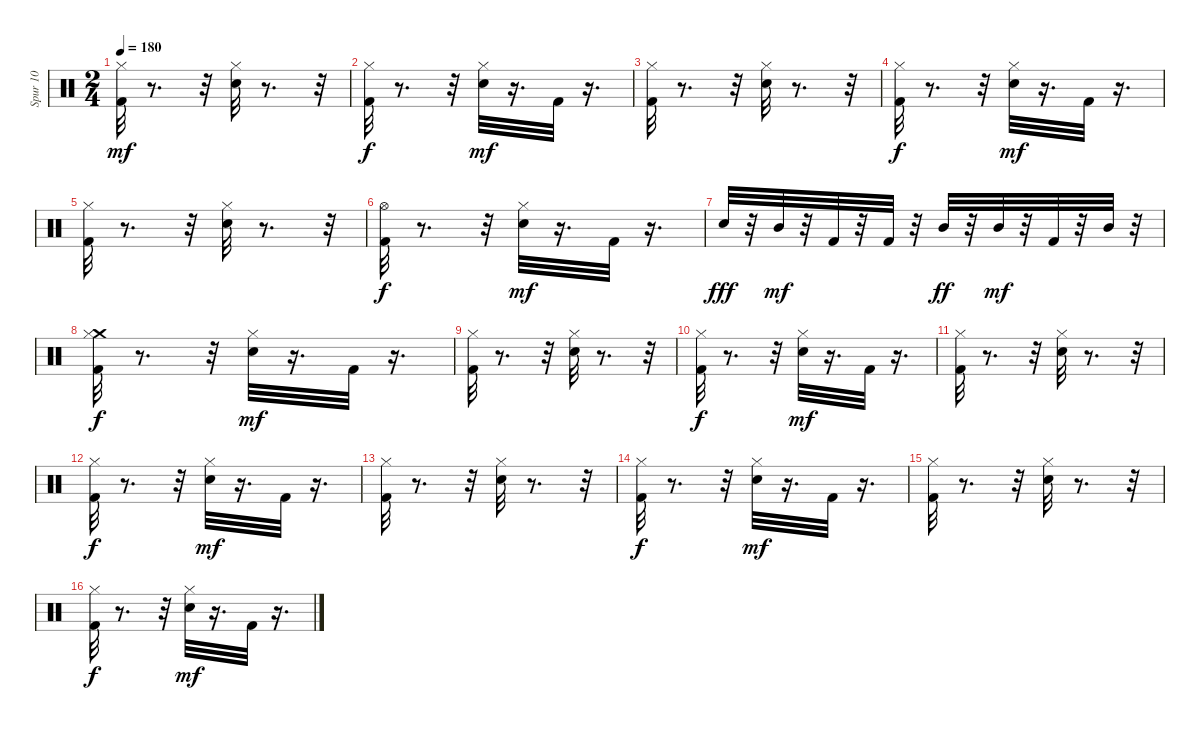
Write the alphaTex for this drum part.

\track ("Spur 10" "Spur 10") {instrument percussion}
\staff {score}
\articulation defaults
\ts (2 4)
\tempo 180
\clef neutral
\ks c
("Hi-Hat (closed)" "Kick (hit) 2").32{dy mf} r.8{d} r.32 ("Electric Snare (hit)" "Hi-Hat (closed)").32 r.8{d} r.32 |
("Hi-Hat (closed)" "Kick (hit) 2").32{dy f} r.8{d} r.32 ("Electric Snare (hit)" "Hi-Hat (closed)").32{dy mf} r.16{d} "Kick (hit) 2".32 r.16{d} |
("Hi-Hat (closed)" "Kick (hit) 2").32 r.8{d} r.32 ("Electric Snare (hit)" "Hi-Hat (closed)").32 r.8{d} r.32 |
("Hi-Hat (closed)" "Kick (hit) 2").32{dy f} r.8{d} r.32 ("Electric Snare (hit)" "Hi-Hat (closed)").32{dy mf} r.16{d} "Kick (hit) 2".32 r.16{d} |
("Hi-Hat (closed)" "Kick (hit) 2").32 r.8{d} r.32 ("Electric Snare (hit)" "Hi-Hat (closed)").32 r.8{d} r.32 |
("Hi-Hat (open)" "Kick (hit) 2").32{dy f} r.8{d} r.32 ("Electric Snare (hit)" "Hi-Hat (closed)").32{dy mf} r.16{d} "Kick (hit) 2".32 r.16{d} |
"Electric Snare (hit)".32{dy fff} r.32 "Mid Tom (hit)".32{dy mf} r.32 "Kick (hit) 2".32 r.32 "Kick (hit) 2".32 r.32 "Mid Tom (hit)".32{dy ff} r.32 "Mid Tom (hit)".32{dy mf} r.32 "Kick (hit) 2".32 r.32 "Mid Tom (hit)".32 r.32 |
("Crash medium (hit)" "Hi-Hat (closed)" "Kick (hit) 2").32{dy f} r.8{d} r.32 ("Electric Snare (hit)" "Hi-Hat (closed)").32{dy mf} r.16{d} "Kick (hit) 2".32 r.16{d} |
("Hi-Hat (closed)" "Kick (hit) 2").32 r.8{d} r.32 ("Electric Snare (hit)" "Hi-Hat (closed)").32 r.8{d} r.32 |
("Hi-Hat (closed)" "Kick (hit) 2").32{dy f} r.8{d} r.32 ("Electric Snare (hit)" "Hi-Hat (closed)").32{dy mf} r.16{d} "Kick (hit) 2".32 r.16{d} |
("Hi-Hat (closed)" "Kick (hit) 2").32 r.8{d} r.32 ("Electric Snare (hit)" "Hi-Hat (closed)").32 r.8{d} r.32 |
("Hi-Hat (closed)" "Kick (hit) 2").32{dy f} r.8{d} r.32 ("Electric Snare (hit)" "Hi-Hat (closed)").32{dy mf} r.16{d} "Kick (hit) 2".32 r.16{d} |
("Hi-Hat (closed)" "Kick (hit) 2").32 r.8{d} r.32 ("Electric Snare (hit)" "Hi-Hat (closed)").32 r.8{d} r.32 |
("Hi-Hat (closed)" "Kick (hit) 2").32{dy f} r.8{d} r.32 ("Electric Snare (hit)" "Hi-Hat (closed)").32{dy mf} r.16{d} "Kick (hit) 2".32 r.16{d} |
("Hi-Hat (closed)" "Kick (hit) 2").32 r.8{d} r.32 ("Electric Snare (hit)" "Hi-Hat (closed)").32 r.8{d} r.32 |
("Hi-Hat (closed)" "Kick (hit) 2").32{dy f} r.8{d} r.32 ("Electric Snare (hit)" "Hi-Hat (closed)").32{dy mf} r.16{d} "Kick (hit) 2".32 r.16{d}
